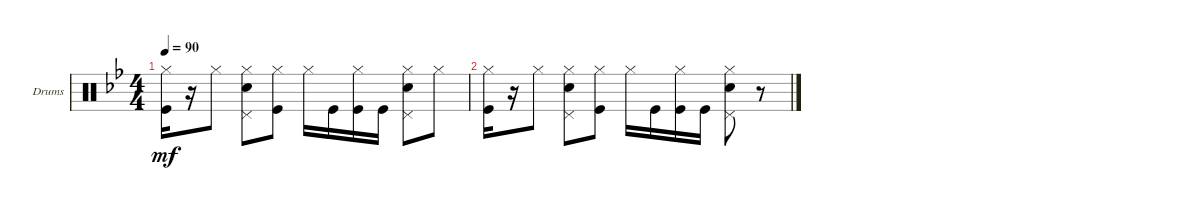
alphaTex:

\bracketExtendMode groupsimilarinstruments
\firstSystemTrackNameOrientation horizontal
\otherSystemsTrackNameOrientation horizontal
\track ("Drumkit" "Drums") {instrument percussion}
\staff {score}
\articulation defaults
\ts (4 4)
\tempo 90
\clef neutral
\ks bb
("Hi-Hat (closed)" "Kick (hit)").16{dy mf} r.16 "Hi-Hat (closed)".8 ("Snare (hit) 2" "Hi-Hat (closed)" "Pedal Hi-Hat (hit)").8 ("Hi-Hat (closed)" "Kick (hit)").8 "Hi-Hat (closed)".16 "Kick (hit)".16 ("Kick (hit)" "Hi-Hat (closed)").16 "Kick (hit)".16 ("Pedal Hi-Hat (hit)" "Hi-Hat (closed)" "Snare (hit) 2").8 "Hi-Hat (closed)".8 |
("Hi-Hat (closed)" "Kick (hit)").16 r.16 "Hi-Hat (closed)".8 ("Hi-Hat (closed)" "Pedal Hi-Hat (hit)" "Snare (hit) 2").8 ("Hi-Hat (closed)" "Kick (hit)").8 "Hi-Hat (closed)".16 "Kick (hit)".16 ("Hi-Hat (closed)" "Kick (hit)").16 "Kick (hit)".16 ("Pedal Hi-Hat (hit)" "Hi-Hat (closed)" "Snare (hit) 2").8 r.8
